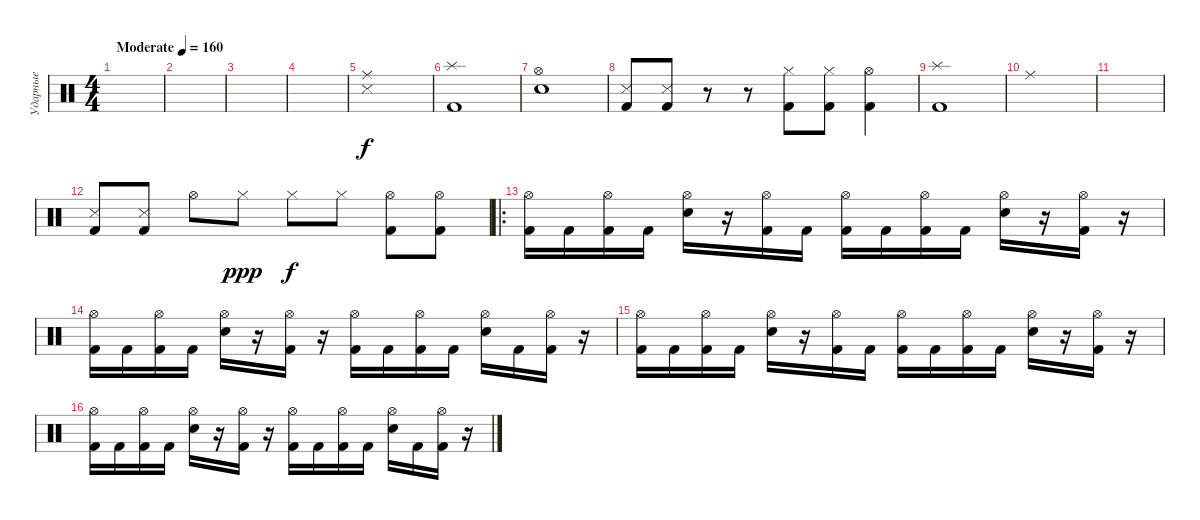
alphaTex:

\track ("Ударные" "Ударные") {instrument percussion}
\staff {score}
\articulation defaults
\ts (4 4)
\tempo (160 "Moderate")
\clef neutral
\ks c
|
|
|
|
("Ride (middle)" "Snare (side stick) 3").1 |
("Splash (hit)" "Kick (hit) 2").1 |
("Hi-Hat (open)" "Electric Snare (hit)").1 |
("Snare (side stick) 3" "Kick (hit) 2").8 ("Snare (side stick) 3" "Kick (hit) 2").8 r.8 r.8 ("Hi-Hat (closed)" "Kick (hit) 2").8 ("Hi-Hat (closed)" "Kick (hit) 2").8 ("Hi-Hat (open)" "Kick (hit) 2").4 |
("Splash (hit)" "Kick (hit) 2").1 |
"Ride (middle)".1 |
|
("Snare (side stick) 3" "Kick (hit) 2").8 ("Snare (side stick) 3" "Kick (hit) 2").8 "Hi-Hat (open)".8 "Hi-Hat (closed)".8{dy ppp} "Hi-Hat (closed)".8{dy f} "Hi-Hat (closed)".8 ("Hi-Hat (open)" "Kick (hit) 2").8 ("Hi-Hat (open)" "Kick (hit) 2").8 |
\ro
("Hi-Hat (open)" "Kick (hit) 2").16 "Kick (hit) 2".16 ("Hi-Hat (open)" "Kick (hit) 2").16 "Kick (hit) 2".16 ("Hi-Hat (open)" "Electric Snare (hit)").16 r.16 ("Hi-Hat (open)" "Kick (hit) 2").16 "Kick (hit) 2".16 ("Hi-Hat (open)" "Kick (hit) 2").16 "Kick (hit) 2".16 ("Hi-Hat (open)" "Kick (hit) 2").16 "Kick (hit) 2".16 ("Hi-Hat (open)" "Electric Snare (hit)").16 r.16 ("Hi-Hat (open)" "Kick (hit) 2").16 r.16 |
("Hi-Hat (open)" "Kick (hit) 2").16 "Kick (hit) 2".16 ("Hi-Hat (open)" "Kick (hit) 2").16 "Kick (hit) 2".16 ("Hi-Hat (open)" "Electric Snare (hit)").16 r.16 ("Hi-Hat (open)" "Kick (hit) 2").16 r.16 ("Hi-Hat (open)" "Kick (hit) 2").16 "Kick (hit) 2".16 ("Hi-Hat (open)" "Kick (hit) 2").16 "Kick (hit) 2".16 ("Hi-Hat (open)" "Electric Snare (hit)").16 "Kick (hit) 2".16 ("Hi-Hat (open)" "Kick (hit) 2").16 r.16 |
("Hi-Hat (open)" "Kick (hit) 2").16 "Kick (hit) 2".16 ("Hi-Hat (open)" "Kick (hit) 2").16 "Kick (hit) 2".16 ("Hi-Hat (open)" "Electric Snare (hit)").16 r.16 ("Hi-Hat (open)" "Kick (hit) 2").16 "Kick (hit) 2".16 ("Hi-Hat (open)" "Kick (hit) 2").16 "Kick (hit) 2".16 ("Hi-Hat (open)" "Kick (hit) 2").16 "Kick (hit) 2".16 ("Hi-Hat (open)" "Electric Snare (hit)").16 r.16 ("Hi-Hat (open)" "Kick (hit) 2").16 r.16 |
("Hi-Hat (open)" "Kick (hit) 2").16 "Kick (hit) 2".16 ("Hi-Hat (open)" "Kick (hit) 2").16 "Kick (hit) 2".16 ("Hi-Hat (open)" "Electric Snare (hit)").16 r.16 ("Hi-Hat (open)" "Kick (hit) 2").16 r.16 ("Hi-Hat (open)" "Kick (hit) 2").16 "Kick (hit) 2".16 ("Hi-Hat (open)" "Kick (hit) 2").16 "Kick (hit) 2".16 ("Hi-Hat (open)" "Electric Snare (hit)").16 "Kick (hit) 2".16 ("Hi-Hat (open)" "Kick (hit) 2").16 r.16
